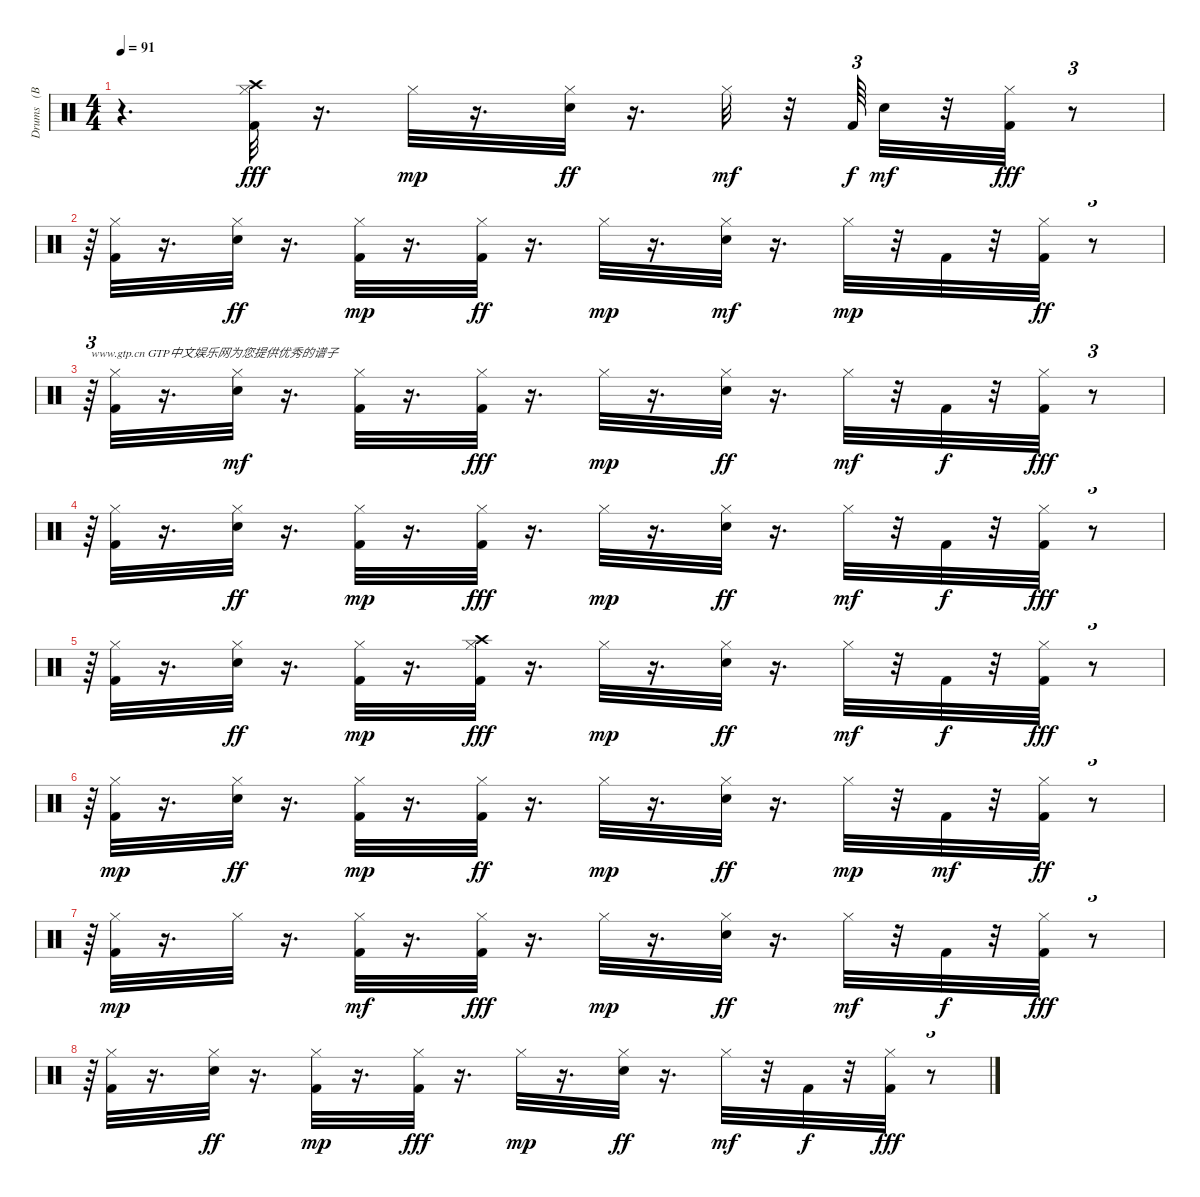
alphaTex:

\track ("Drums   (BB)" "Drums   (B") {instrument percussion}
\staff {score}
\articulation defaults
\ts (4 4)
\tempo 91
\clef neutral
\ks c
r.4{d dy fff} ("Kick (hit) 2" "Hi-Hat (closed)" "Crash high (hit)").32 r.16{d} "Hi-Hat (closed)".32{dy mp} r.16{d} ("Hi-Hat (closed)" "Electric Snare (hit)").32{dy ff} r.16{d} "Hi-Hat (closed)".32{dy mf} r.32 "Kick (hit) 2".64{tu (3 2) dy f} "Electric Snare (hit)".32{dy mf} r.32 ("Hi-Hat (closed)" "Kick (hit) 2").32{dy fff} r.8{tu (3 2)} |
r.64{tu (3 2)} ("Hi-Hat (closed)" "Kick (hit) 2").32 r.16{d} ("Electric Snare (hit)" "Hi-Hat (closed)").32{dy ff} r.16{d} ("Hi-Hat (closed)" "Kick (hit) 2").32{dy mp} r.16{d} ("Hi-Hat (closed)" "Kick (hit) 2").32{dy ff} r.16{d} "Hi-Hat (closed)".32{dy mp} r.16{d} ("Electric Snare (hit)" "Hi-Hat (closed)").32{dy mf} r.16{d} "Hi-Hat (closed)".32{dy mp} r.32 "Kick (hit) 2".32 r.32 ("Hi-Hat (closed)" "Kick (hit) 2").32{dy ff} r.8{tu (3 2)} |
r.64{tu (3 2) txt "www.gtp.cn GTP中文娱乐网为您提供优秀的谱子"} ("Hi-Hat (closed)" "Kick (hit) 2").32 r.16{d} ("Hi-Hat (closed)" "Electric Snare (hit)").32{dy mf} r.16{d} ("Hi-Hat (closed)" "Kick (hit) 2").32 r.16{d} ("Hi-Hat (closed)" "Kick (hit) 2").32{dy fff} r.16{d} "Hi-Hat (closed)".32{dy mp} r.16{d} ("Hi-Hat (closed)" "Electric Snare (hit)").32{dy ff} r.16{d} "Hi-Hat (closed)".32{dy mf} r.32 "Kick (hit) 2".32{dy f} r.32 ("Hi-Hat (closed)" "Kick (hit) 2").32{dy fff} r.8{tu (3 2)} |
r.64{tu (3 2)} ("Hi-Hat (closed)" "Kick (hit) 2").32 r.16{d} ("Electric Snare (hit)" "Hi-Hat (closed)").32{dy ff} r.16{d} ("Hi-Hat (closed)" "Kick (hit) 2").32{dy mp} r.16{d} ("Hi-Hat (closed)" "Kick (hit) 2").32{dy fff} r.16{d} "Hi-Hat (closed)".32{dy mp} r.16{d} ("Electric Snare (hit)" "Hi-Hat (closed)").32{dy ff} r.16{d} "Hi-Hat (closed)".32{dy mf} r.32 "Kick (hit) 2".32{dy f} r.32 ("Kick (hit) 2" "Hi-Hat (closed)").32{dy fff} r.8{tu (3 2)} |
r.64{tu (3 2)} ("Hi-Hat (closed)" "Kick (hit) 2").32 r.16{d} ("Electric Snare (hit)" "Hi-Hat (closed)").32{dy ff} r.16{d} ("Hi-Hat (closed)" "Kick (hit) 2").32{dy mp} r.16{d} ("Crash high (hit)" "Hi-Hat (closed)" "Kick (hit) 2").32{dy fff} r.16{d} "Hi-Hat (closed)".32{dy mp} r.16{d} ("Electric Snare (hit)" "Hi-Hat (closed)").32{dy ff} r.16{d} "Hi-Hat (closed)".32{dy mf} r.32 "Kick (hit) 2".32{dy f} r.32 ("Hi-Hat (closed)" "Kick (hit) 2").32{dy fff} r.8{tu (3 2)} |
r.64{tu (3 2)} ("Kick (hit) 2" "Hi-Hat (closed)").32{dy mp} r.16{d} ("Electric Snare (hit)" "Hi-Hat (closed)").32{dy ff} r.16{d} ("Hi-Hat (closed)" "Kick (hit) 2").32{dy mp} r.16{d} ("Hi-Hat (closed)" "Kick (hit) 2").32{dy ff} r.16{d} "Hi-Hat (closed)".32{dy mp} r.16{d} ("Hi-Hat (closed)" "Electric Snare (hit)").32{dy ff} r.16{d} "Hi-Hat (closed)".32{dy mp} r.32 "Kick (hit) 2".32{dy mf} r.32 ("Hi-Hat (closed)" "Kick (hit) 2").32{dy ff} r.8{tu (3 2)} |
r.64{tu (3 2)} ("Kick (hit) 2" "Hi-Hat (closed)").32{dy mp} r.16{d} "Hi-Hat (closed)".32 r.16{d} ("Hi-Hat (closed)" "Kick (hit) 2").32{dy mf} r.16{d} ("Hi-Hat (closed)" "Kick (hit) 2").32{dy fff} r.16{d} "Hi-Hat (closed)".32{dy mp} r.16{d} ("Electric Snare (hit)" "Hi-Hat (closed)").32{dy ff} r.16{d} "Hi-Hat (closed)".32{dy mf} r.32 "Kick (hit) 2".32{dy f} r.32 ("Hi-Hat (closed)" "Kick (hit) 2").32{dy fff} r.8{tu (3 2)} |
r.64{tu (3 2)} ("Hi-Hat (closed)" "Kick (hit) 2").32 r.16{d} ("Hi-Hat (closed)" "Electric Snare (hit)").32{dy ff} r.16{d} ("Kick (hit) 2" "Hi-Hat (closed)").32{dy mp} r.16{d} ("Hi-Hat (closed)" "Kick (hit) 2").32{dy fff} r.16{d} "Hi-Hat (closed)".32{dy mp} r.16{d} ("Electric Snare (hit)" "Hi-Hat (closed)").32{dy ff} r.16{d} "Hi-Hat (closed)".32{dy mf} r.32 "Kick (hit) 2".32{dy f} r.32 ("Hi-Hat (closed)" "Kick (hit) 2").32{dy fff} r.8{tu (3 2)}
